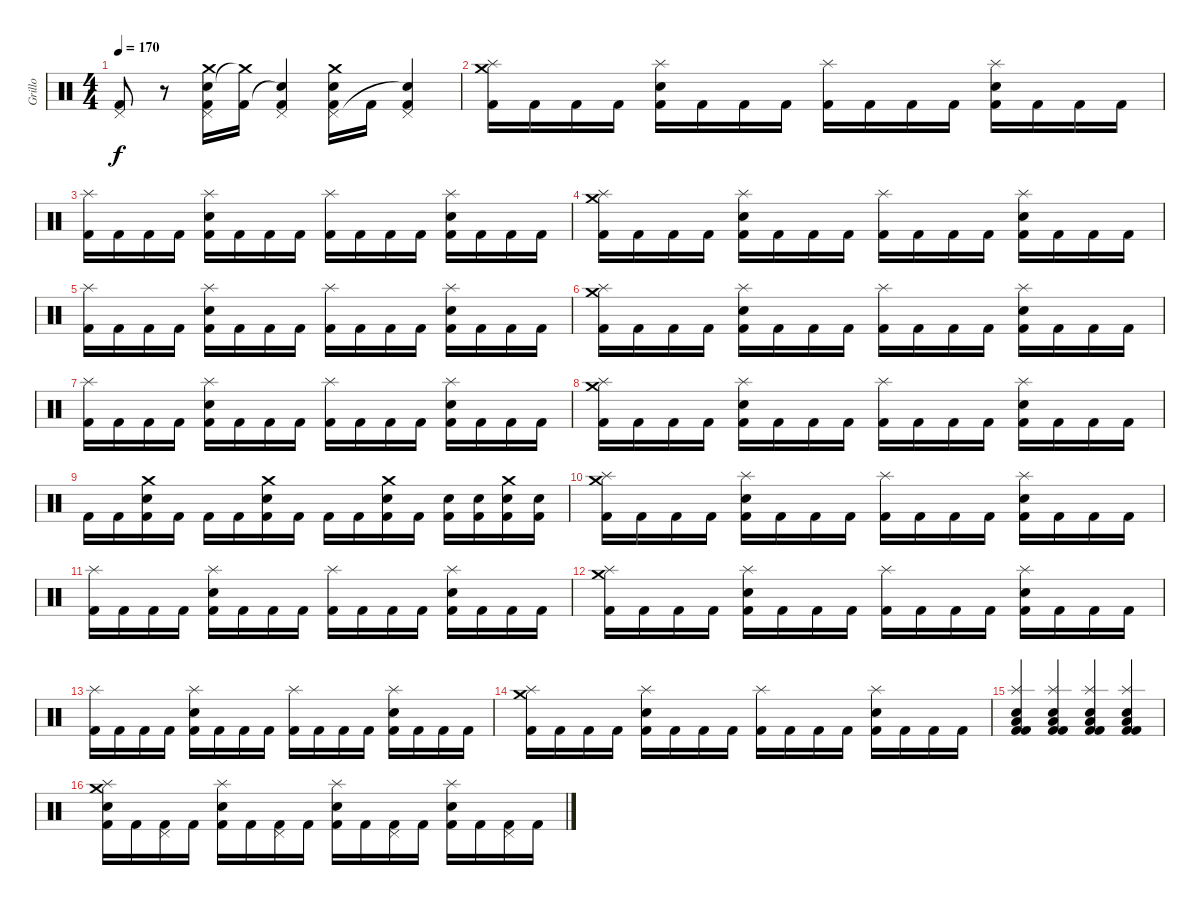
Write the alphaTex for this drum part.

\track ("Grillo" "Grillo") {instrument percussion}
\staff {score}
\articulation defaults
\ts (4 4)
\tempo 170
\clef neutral
\ks c
("Pedal Hi-Hat (hit)" "Kick (hit) 2").8{dy f} r.8 ("Electric Snare (hit)" "Pedal Hi-Hat (hit)" "Crash medium (hit)" "Kick (hit) 2").16 ("Crash medium (hit)"{t} "Kick (hit) 2").16 ("Pedal Hi-Hat (hit)" "Snare (hit)"{t} "Kick (hit) 2").4 ("Electric Snare (hit)" "Pedal Hi-Hat (hit)" "Crash medium (hit)" "Kick (hit) 2").16 "Kick (hit) 2".16 ("Pedal Hi-Hat (hit)" "Snare (hit)"{t} "Kick (hit) 2").4 |
("Splash (hit)" "Crash medium (hit)" "Kick (hit) 2").16 "Kick (hit) 2".16 "Kick (hit) 2".16 "Kick (hit) 2".16 ("Electric Snare (hit)" "Splash (hit)" "Kick (hit) 2").16 "Kick (hit) 2".16 "Kick (hit) 2".16 "Kick (hit) 2".16 ("Splash (hit)" "Kick (hit) 2").16 "Kick (hit) 2".16 "Kick (hit) 2".16 "Kick (hit) 2".16 ("Electric Snare (hit)" "Splash (hit)" "Kick (hit) 2").16 "Kick (hit) 2".16 "Kick (hit) 2".16 "Kick (hit) 2".16 |
("Splash (hit)" "Kick (hit) 2").16 "Kick (hit) 2".16 "Kick (hit) 2".16 "Kick (hit) 2".16 ("Electric Snare (hit)" "Splash (hit)" "Kick (hit) 2").16 "Kick (hit) 2".16 "Kick (hit) 2".16 "Kick (hit) 2".16 ("Splash (hit)" "Kick (hit) 2").16 "Kick (hit) 2".16 "Kick (hit) 2".16 "Kick (hit) 2".16 ("Electric Snare (hit)" "Splash (hit)" "Kick (hit) 2").16 "Kick (hit) 2".16 "Kick (hit) 2".16 "Kick (hit) 2".16 |
("Splash (hit)" "Crash medium (hit)" "Kick (hit) 2").16 "Kick (hit) 2".16 "Kick (hit) 2".16 "Kick (hit) 2".16 ("Electric Snare (hit)" "Splash (hit)" "Kick (hit) 2").16 "Kick (hit) 2".16 "Kick (hit) 2".16 "Kick (hit) 2".16 ("Splash (hit)" "Kick (hit) 2").16 "Kick (hit) 2".16 "Kick (hit) 2".16 "Kick (hit) 2".16 ("Electric Snare (hit)" "Splash (hit)" "Kick (hit) 2").16 "Kick (hit) 2".16 "Kick (hit) 2".16 "Kick (hit) 2".16 |
("Splash (hit)" "Kick (hit) 2").16 "Kick (hit) 2".16 "Kick (hit) 2".16 "Kick (hit) 2".16 ("Electric Snare (hit)" "Splash (hit)" "Kick (hit) 2").16 "Kick (hit) 2".16 "Kick (hit) 2".16 "Kick (hit) 2".16 ("Splash (hit)" "Kick (hit) 2").16 "Kick (hit) 2".16 "Kick (hit) 2".16 "Kick (hit) 2".16 ("Electric Snare (hit)" "Splash (hit)" "Kick (hit) 2").16 "Kick (hit) 2".16 "Kick (hit) 2".16 "Kick (hit) 2".16 |
("Splash (hit)" "Crash medium (hit)" "Kick (hit) 2").16 "Kick (hit) 2".16 "Kick (hit) 2".16 "Kick (hit) 2".16 ("Electric Snare (hit)" "Splash (hit)" "Kick (hit) 2").16 "Kick (hit) 2".16 "Kick (hit) 2".16 "Kick (hit) 2".16 ("Splash (hit)" "Kick (hit) 2").16 "Kick (hit) 2".16 "Kick (hit) 2".16 "Kick (hit) 2".16 ("Electric Snare (hit)" "Splash (hit)" "Kick (hit) 2").16 "Kick (hit) 2".16 "Kick (hit) 2".16 "Kick (hit) 2".16 |
("Splash (hit)" "Kick (hit) 2").16 "Kick (hit) 2".16 "Kick (hit) 2".16 "Kick (hit) 2".16 ("Electric Snare (hit)" "Splash (hit)" "Kick (hit) 2").16 "Kick (hit) 2".16 "Kick (hit) 2".16 "Kick (hit) 2".16 ("Splash (hit)" "Kick (hit) 2").16 "Kick (hit) 2".16 "Kick (hit) 2".16 "Kick (hit) 2".16 ("Electric Snare (hit)" "Splash (hit)" "Kick (hit) 2").16 "Kick (hit) 2".16 "Kick (hit) 2".16 "Kick (hit) 2".16 |
("Splash (hit)" "Crash medium (hit)" "Kick (hit) 2").16 "Kick (hit) 2".16 "Kick (hit) 2".16 "Kick (hit) 2".16 ("Electric Snare (hit)" "Splash (hit)" "Kick (hit) 2").16 "Kick (hit) 2".16 "Kick (hit) 2".16 "Kick (hit) 2".16 ("Splash (hit)" "Kick (hit) 2").16 "Kick (hit) 2".16 "Kick (hit) 2".16 "Kick (hit) 2".16 ("Electric Snare (hit)" "Splash (hit)" "Kick (hit) 2").16 "Kick (hit) 2".16 "Kick (hit) 2".16 "Kick (hit) 2".16 |
"Kick (hit) 2".16 "Kick (hit) 2".16 ("Electric Snare (hit)" "Crash medium (hit)" "Kick (hit) 2").16 "Kick (hit) 2".16 "Kick (hit) 2".16 "Kick (hit) 2".16 ("Electric Snare (hit)" "Crash medium (hit)" "Kick (hit) 2").16 "Kick (hit) 2".16 "Kick (hit) 2".16 "Kick (hit) 2".16 ("Electric Snare (hit)" "Crash medium (hit)" "Kick (hit) 2").16 "Kick (hit) 2".16 ("Electric Snare (hit)" "Kick (hit) 2").16 ("Electric Snare (hit)" "Kick (hit) 2").16 ("Electric Snare (hit)" "Crash medium (hit)" "Kick (hit) 2").16 ("Electric Snare (hit)" "Kick (hit) 2").16 |
("Splash (hit)" "Crash medium (hit)" "Kick (hit) 2").16 "Kick (hit) 2".16 "Kick (hit) 2".16 "Kick (hit) 2".16 ("Electric Snare (hit)" "Splash (hit)" "Kick (hit) 2").16 "Kick (hit) 2".16 "Kick (hit) 2".16 "Kick (hit) 2".16 ("Splash (hit)" "Kick (hit) 2").16 "Kick (hit) 2".16 "Kick (hit) 2".16 "Kick (hit) 2".16 ("Electric Snare (hit)" "Splash (hit)" "Kick (hit) 2").16 "Kick (hit) 2".16 "Kick (hit) 2".16 "Kick (hit) 2".16 |
("Splash (hit)" "Kick (hit) 2").16 "Kick (hit) 2".16 "Kick (hit) 2".16 "Kick (hit) 2".16 ("Electric Snare (hit)" "Splash (hit)" "Kick (hit) 2").16 "Kick (hit) 2".16 "Kick (hit) 2".16 "Kick (hit) 2".16 ("Splash (hit)" "Kick (hit) 2").16 "Kick (hit) 2".16 "Kick (hit) 2".16 "Kick (hit) 2".16 ("Electric Snare (hit)" "Splash (hit)" "Kick (hit) 2").16 "Kick (hit) 2".16 "Kick (hit) 2".16 "Kick (hit) 2".16 |
("Splash (hit)" "Crash medium (hit)" "Kick (hit) 2").16 "Kick (hit) 2".16 "Kick (hit) 2".16 "Kick (hit) 2".16 ("Electric Snare (hit)" "Splash (hit)" "Kick (hit) 2").16 "Kick (hit) 2".16 "Kick (hit) 2".16 "Kick (hit) 2".16 ("Splash (hit)" "Kick (hit) 2").16 "Kick (hit) 2".16 "Kick (hit) 2".16 "Kick (hit) 2".16 ("Electric Snare (hit)" "Splash (hit)" "Kick (hit) 2").16 "Kick (hit) 2".16 "Kick (hit) 2".16 "Kick (hit) 2".16 |
("Splash (hit)" "Kick (hit) 2").16 "Kick (hit) 2".16 "Kick (hit) 2".16 "Kick (hit) 2".16 ("Electric Snare (hit)" "Splash (hit)" "Kick (hit) 2").16 "Kick (hit) 2".16 "Kick (hit) 2".16 "Kick (hit) 2".16 ("Splash (hit)" "Kick (hit) 2").16 "Kick (hit) 2".16 "Kick (hit) 2".16 "Kick (hit) 2".16 ("Electric Snare (hit)" "Splash (hit)" "Kick (hit) 2").16 "Kick (hit) 2".16 "Kick (hit) 2".16 "Kick (hit) 2".16 |
("Splash (hit)" "Crash medium (hit)" "Kick (hit) 2").16 "Kick (hit) 2".16 "Kick (hit) 2".16 "Kick (hit) 2".16 ("Electric Snare (hit)" "Splash (hit)" "Kick (hit) 2").16 "Kick (hit) 2".16 "Kick (hit) 2".16 "Kick (hit) 2".16 ("Splash (hit)" "Kick (hit) 2").16 "Kick (hit) 2".16 "Kick (hit) 2".16 "Kick (hit) 2".16 ("Electric Snare (hit)" "Splash (hit)" "Kick (hit) 2").16 "Kick (hit) 2".16 "Kick (hit) 2".16 "Kick (hit) 2".16 |
("Snare (hit) 2" "Splash (hit)" "Low Tom (hit)" "Kick (hit) 2" "Kick (hit) 2").4 ("Snare (hit) 2" "Splash (hit)" "Low Tom (hit)" "Kick (hit) 2" "Kick (hit) 2").4 ("Snare (hit) 2" "Splash (hit)" "Low Tom (hit)" "Kick (hit) 2" "Kick (hit) 2").4 ("Snare (hit) 2" "Splash (hit)" "Low Tom (hit)" "Kick (hit) 2" "Kick (hit) 2").4 |
("Electric Snare (hit)" "Splash (hit)" "Crash medium (hit)" "Kick (hit) 2").16 "Kick (hit) 2".16 ("Pedal Hi-Hat (hit)" "Kick (hit) 2").16 "Kick (hit) 2".16 ("Electric Snare (hit)" "Splash (hit)" "Kick (hit) 2").16 "Kick (hit) 2".16 ("Pedal Hi-Hat (hit)" "Kick (hit) 2").16 "Kick (hit) 2".16 ("Electric Snare (hit)" "Splash (hit)" "Kick (hit) 2").16 "Kick (hit) 2".16 ("Pedal Hi-Hat (hit)" "Kick (hit) 2").16 "Kick (hit) 2".16 ("Electric Snare (hit)" "Splash (hit)" "Kick (hit) 2").16 "Kick (hit) 2".16 ("Pedal Hi-Hat (hit)" "Kick (hit) 2").16 "Kick (hit) 2".16
